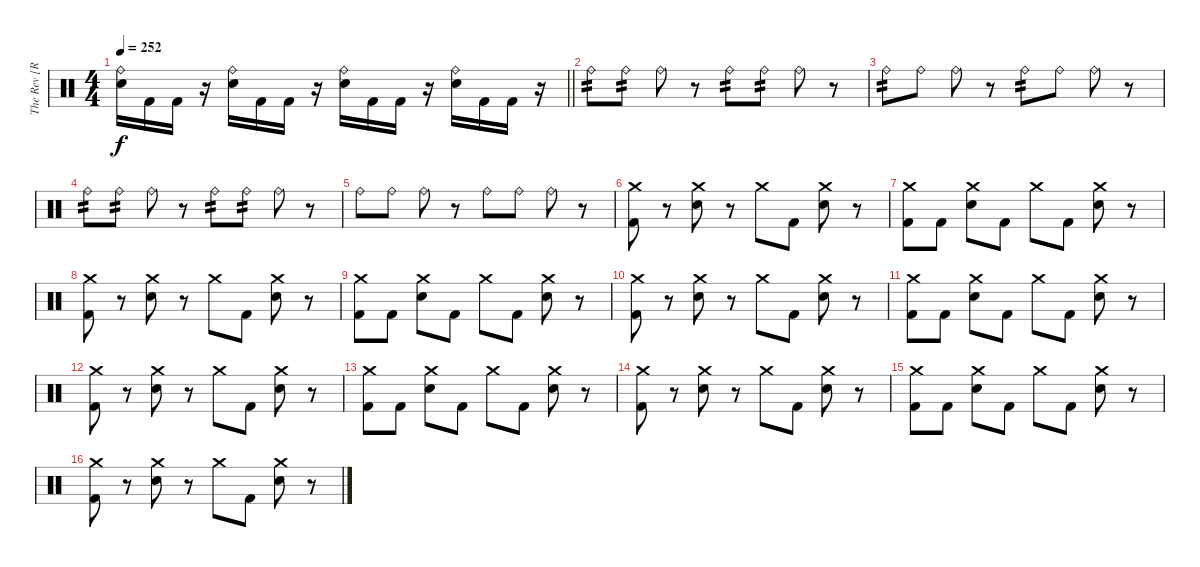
\track ("The Rev [R.I.P]" "The Rev [R") {instrument percussion}
\staff {score}
\articulation defaults
\ts (4 4)
\tempo 252
\clef neutral
\barLineRight lightlight
\ks c
("Ride (bell)" "Electric Snare (hit)").16{dy f} "Kick (hit) 2".16 "Kick (hit) 2".16 r.16 ("Ride (bell)" "Electric Snare (hit)").16 "Kick (hit) 2".16 "Kick (hit) 2".16 r.16 ("Ride (bell)" "Electric Snare (hit)").16 "Kick (hit) 2".16 "Kick (hit) 2".16 r.16 ("Ride (bell)" "Electric Snare (hit)").16 "Kick (hit) 2".16 "Kick (hit) 2".16 r.16 |
"Ride (bell)".8{tp 2} "Ride (bell)".8{tp 2} "Ride (bell)".8 r.8 "Ride (bell)".8{tp 2} "Ride (bell)".8{tp 2} "Ride (bell)".8 r.8 |
"Ride (bell)".8{tp 2} "Ride (bell)".8 "Ride (bell)".8 r.8 "Ride (bell)".8{tp 2} "Ride (bell)".8 "Ride (bell)".8 r.8 |
"Ride (bell)".8{tp 2} "Ride (bell)".8{tp 2} "Ride (bell)".8 r.8 "Ride (bell)".8{tp 2} "Ride (bell)".8{tp 2} "Ride (bell)".8 r.8 |
"Ride (bell)".8 "Ride (bell)".8 "Ride (bell)".8 r.8 "Ride (bell)".8 "Ride (bell)".8 "Ride (bell)".8 r.8 |
("Crash medium (hit)" "Kick (hit) 2").8 r.8 ("Crash medium (hit)" "Electric Snare (hit)").8 r.8 "Crash medium (hit)".8 "Kick (hit) 2".8 ("Crash medium (hit)" "Electric Snare (hit)").8 r.8 |
("Crash medium (hit)" "Kick (hit) 2").8 "Kick (hit) 2".8 ("Crash medium (hit)" "Electric Snare (hit)").8 "Kick (hit) 2".8 "Crash medium (hit)".8 "Kick (hit) 2".8 ("Crash medium (hit)" "Electric Snare (hit)").8 r.8 |
("Crash medium (hit)" "Kick (hit) 2").8 r.8 ("Crash medium (hit)" "Electric Snare (hit)").8 r.8 "Crash medium (hit)".8 "Kick (hit) 2".8 ("Crash medium (hit)" "Electric Snare (hit)").8 r.8 |
("Crash medium (hit)" "Kick (hit) 2").8 "Kick (hit) 2".8 ("Crash medium (hit)" "Electric Snare (hit)").8 "Kick (hit) 2".8 "Crash medium (hit)".8 "Kick (hit) 2".8 ("Crash medium (hit)" "Electric Snare (hit)").8 r.8 |
("Crash medium (hit)" "Kick (hit) 2").8 r.8 ("Crash medium (hit)" "Electric Snare (hit)").8 r.8 "Crash medium (hit)".8 "Kick (hit) 2".8 ("Crash medium (hit)" "Electric Snare (hit)").8 r.8 |
("Crash medium (hit)" "Kick (hit) 2").8 "Kick (hit) 2".8 ("Crash medium (hit)" "Electric Snare (hit)").8 "Kick (hit) 2".8 "Crash medium (hit)".8 "Kick (hit) 2".8 ("Crash medium (hit)" "Electric Snare (hit)").8 r.8 |
("Crash medium (hit)" "Kick (hit) 2").8 r.8 ("Crash medium (hit)" "Electric Snare (hit)").8 r.8 "Crash medium (hit)".8 "Kick (hit) 2".8 ("Crash medium (hit)" "Electric Snare (hit)").8 r.8 |
("Crash medium (hit)" "Kick (hit) 2").8 "Kick (hit) 2".8 ("Crash medium (hit)" "Electric Snare (hit)").8 "Kick (hit) 2".8 "Crash medium (hit)".8 "Kick (hit) 2".8 ("Crash medium (hit)" "Electric Snare (hit)").8 r.8 |
("Crash medium (hit)" "Kick (hit) 2").8 r.8 ("Crash medium (hit)" "Electric Snare (hit)").8 r.8 "Crash medium (hit)".8 "Kick (hit) 2".8 ("Crash medium (hit)" "Electric Snare (hit)").8 r.8 |
("Crash medium (hit)" "Kick (hit) 2").8 "Kick (hit) 2".8 ("Crash medium (hit)" "Electric Snare (hit)").8 "Kick (hit) 2".8 "Crash medium (hit)".8 "Kick (hit) 2".8 ("Crash medium (hit)" "Electric Snare (hit)").8 r.8 |
("Crash medium (hit)" "Kick (hit) 2").8 r.8 ("Crash medium (hit)" "Electric Snare (hit)").8 r.8 "Crash medium (hit)".8 "Kick (hit) 2".8 ("Crash medium (hit)" "Electric Snare (hit)").8 r.8
